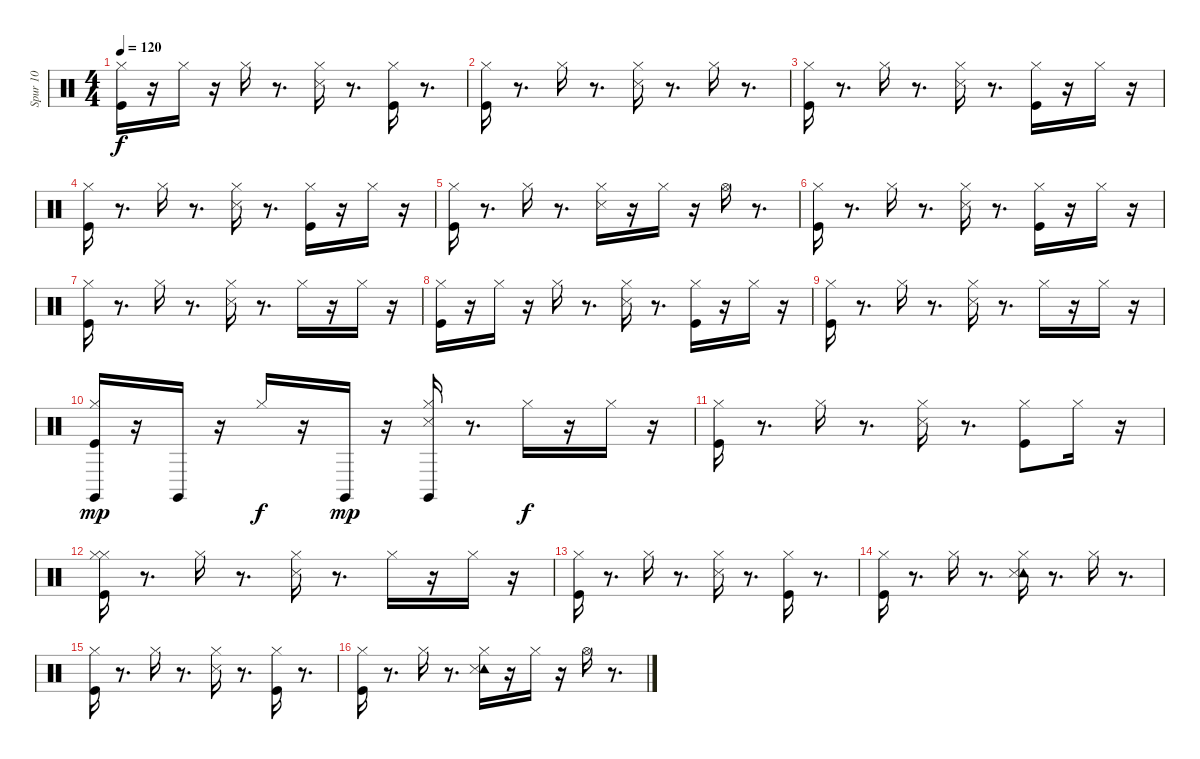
\track ("Spur 10" "Spur 10") {instrument percussion}
\staff {score}
\articulation defaults
\ts (4 4)
\tempo 120
\clef neutral
\ks c
("Kick (hit)" "Hi-Hat (closed)").16{dy f} r.16 "Hi-Hat (closed)".16 r.16 "Hi-Hat (closed)".16 r.8{d} ("Snare (side stick) 3" "Hi-Hat (closed)").16 r.8{d} ("Kick (hit)" "Hi-Hat (closed)").16 r.8{d} |
("Kick (hit)" "Hi-Hat (closed)").16 r.8{d} "Hi-Hat (closed)".16 r.8{d} ("Snare (side stick) 3" "Hi-Hat (closed)").16 r.8{d} "Hi-Hat (closed)".16 r.8{d} |
("Kick (hit)" "Hi-Hat (closed)").16 r.8{d} "Hi-Hat (closed)".16 r.8{d} ("Snare (side stick) 3" "Hi-Hat (closed)").16 r.8{d} ("Kick (hit)" "Hi-Hat (closed)").16 r.16 "Hi-Hat (closed)".16 r.16 |
("Kick (hit)" "Hi-Hat (closed)").16 r.8{d} "Hi-Hat (closed)".16 r.8{d} ("Snare (side stick) 3" "Hi-Hat (closed)").16 r.8{d} ("Kick (hit)" "Hi-Hat (closed)").16 r.16 "Hi-Hat (closed)".16 r.16 |
("Kick (hit)" "Hi-Hat (closed)").16 r.8{d} "Hi-Hat (closed)".16 r.8{d} ("Snare (side stick) 3" "Hi-Hat (closed)").16 r.16 "Hi-Hat (closed)".16 r.16 "Hi-Hat (open)".16 r.8{d} |
("Kick (hit)" "Hi-Hat (closed)").16 r.8{d} "Hi-Hat (closed)".16 r.8{d} ("Snare (side stick) 3" "Hi-Hat (closed)").16 r.8{d} ("Kick (hit)" "Hi-Hat (closed)").16 r.16 "Hi-Hat (closed)".16 r.16 |
("Kick (hit)" "Hi-Hat (closed)").16 r.8{d} "Hi-Hat (closed)".16 r.8{d} ("Snare (side stick) 3" "Hi-Hat (closed)").16 r.8{d} "Hi-Hat (closed)".16 r.16 "Hi-Hat (closed)".16 r.16 |
("Kick (hit)" "Hi-Hat (closed)").16 r.16 "Hi-Hat (closed)".16 r.16 "Hi-Hat (closed)".16 r.8{d} ("Snare (side stick) 3" "Hi-Hat (closed)").16 r.8{d} ("Kick (hit)" "Hi-Hat (closed)").16 r.16 "Hi-Hat (closed)".16 r.16 |
("Kick (hit)" "Hi-Hat (closed)").16 r.8{d} "Hi-Hat (closed)".16 r.8{d} ("Snare (side stick) 3" "Hi-Hat (closed)").16 r.8{d} "Hi-Hat (closed)".16 r.16 "Hi-Hat (closed)".16 r.16 |
("Claves (hit)" "Kick (hit)" "Hi-Hat (closed)").16{dy mp} r.16 "Claves (hit)".16 r.16 "Hi-Hat (closed)".16{dy f} r.16 "Claves (hit)".16{dy mp} r.16 ("Claves (hit)" "Snare (side stick) 3" "Hi-Hat (closed)").16 r.8{d} "Hi-Hat (closed)".16{dy f} r.16 "Hi-Hat (closed)".16 r.16 |
("Kick (hit)" "Hi-Hat (closed)").16 r.8{d} "Hi-Hat (closed)".16 r.8{d} ("Snare (side stick) 3" "Hi-Hat (closed)").16 r.8{d} ("Kick (hit)" "Hi-Hat (closed)").8 "Hi-Hat (closed)".16 r.16 |
("Hi-Hat (closed)" "Kick (hit)" "Hi-Hat (closed)").16 r.8{d} "Hi-Hat (closed)".16 r.8{d} ("Snare (side stick) 3" "Hi-Hat (closed)").16 r.8{d} "Hi-Hat (closed)".16 r.16 "Hi-Hat (closed)".16 r.16 |
("Kick (hit)" "Hi-Hat (closed)").16 r.8{d} "Hi-Hat (closed)".16 r.8{d} ("Snare (side stick) 3" "Hi-Hat (closed)").16 r.8{d} ("Kick (hit)" "Hi-Hat (closed)").16 r.8{d} |
("Kick (hit)" "Hi-Hat (closed)").16 r.8{d} "Hi-Hat (closed)".16 r.8{d} ("Tambourine (hit)" "Snare (side stick) 3" "Hi-Hat (closed)").16 r.8{d} "Hi-Hat (closed)".16 r.8{d} |
("Kick (hit)" "Hi-Hat (closed)").16 r.8{d} "Hi-Hat (closed)".16 r.8{d} ("Snare (side stick) 3" "Hi-Hat (closed)").16 r.8{d} ("Kick (hit)" "Hi-Hat (closed)").16 r.8{d} |
("Kick (hit)" "Hi-Hat (closed)").16 r.8{d} "Hi-Hat (closed)".16 r.8{d} ("Tambourine (hit)" "Snare (side stick) 3" "Hi-Hat (closed)").16 r.16 "Hi-Hat (closed)".16 r.16 "Hi-Hat (open)".16 r.8{d}
